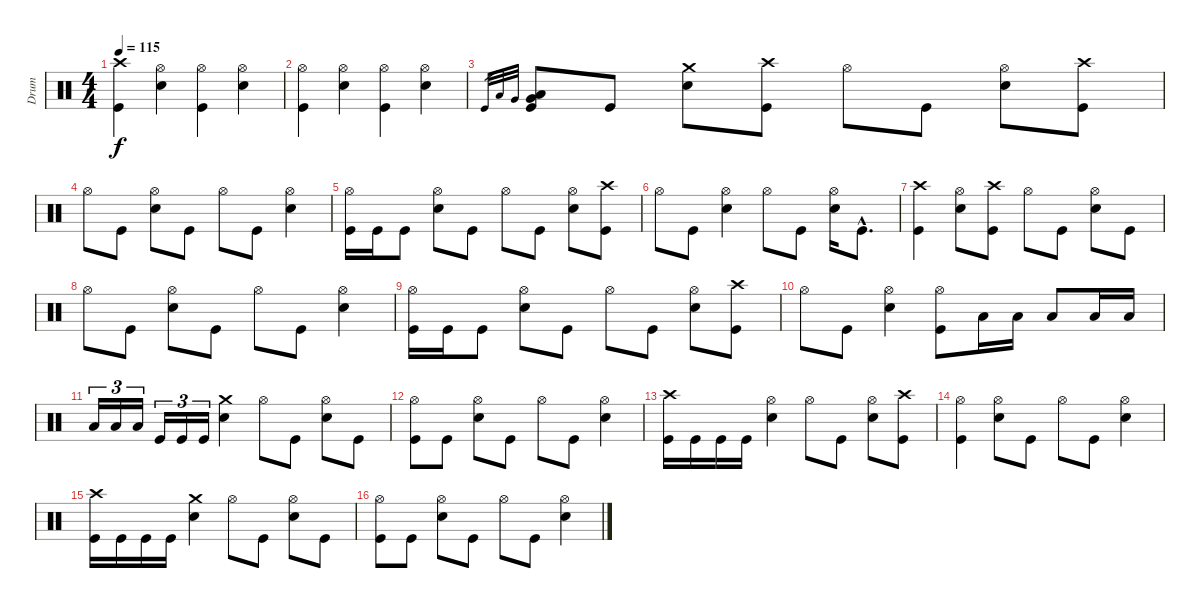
\track ("Drum" "Drum") {instrument percussion}
\staff {score}
\articulation defaults
\ts (4 4)
\tempo 115
\clef neutral
\ks c
("Kick (hit)" "Crash high (hit)").4{dy f} ("Hi-Hat (open)" "Snare (hit) 2").4 ("Kick (hit)" "Hi-Hat (open)").4 ("Hi-Hat (open)" "Snare (hit) 2").4 |
("Kick (hit)" "Hi-Hat (open)").4 ("Hi-Hat (open)" "Snare (hit) 2").4 ("Kick (hit)" "Hi-Hat (open)").4 ("Hi-Hat (open)" "Snare (hit) 2").4 |
"Kick (hit)".32{gr} "Low Floor Tom (hit)".32{gr} "Very Low Tom (hit)".32{gr} ("Kick (hit)" "Low Floor Tom (hit)" "Very Low Tom (hit)").8 "Kick (hit)".8 ("Snare (hit) 2" "Crash medium (hit)").8 ("Kick (hit)" "Crash high (hit)").8 "Hi-Hat (open)".8 "Kick (hit)".8 ("Hi-Hat (open)" "Snare (hit) 2").8 ("Kick (hit)" "Crash high (hit)").8 |
"Hi-Hat (open)".8 "Kick (hit)".8 ("Hi-Hat (open)" "Snare (hit) 2").8 "Kick (hit)".8 "Hi-Hat (open)".8 "Kick (hit)".8 ("Hi-Hat (open)" "Snare (hit) 2").4 |
("Kick (hit)" "Hi-Hat (open)").16 "Kick (hit)".16 "Kick (hit)".8 ("Hi-Hat (open)" "Snare (hit) 2").8 "Kick (hit)".8 "Hi-Hat (open)".8 "Kick (hit)".8 ("Hi-Hat (open)" "Snare (hit) 2").8 ("Kick (hit)" "Crash high (hit)").8 |
"Hi-Hat (open)".8 "Kick (hit)".8 ("Hi-Hat (open)" "Snare (hit) 2").4 "Hi-Hat (open)".8 "Kick (hit)".8 ("Hi-Hat (open)" "Snare (hit) 2").16 "Kick (hit)"{hac}.8{d} |
("Kick (hit)" "Crash high (hit)").4 ("Hi-Hat (open)" "Snare (hit) 2").8 ("Kick (hit)" "Crash high (hit)").8 "Hi-Hat (open)".8 "Kick (hit)".8 ("Hi-Hat (open)" "Snare (hit) 2").8 "Kick (hit)".8 |
"Hi-Hat (open)".8 "Kick (hit)".8 ("Hi-Hat (open)" "Snare (hit) 2").8 "Kick (hit)".8 "Hi-Hat (open)".8 "Kick (hit)".8 ("Hi-Hat (open)" "Snare (hit) 2").4 |
("Kick (hit)" "Hi-Hat (open)").16 "Kick (hit)".16 "Kick (hit)".8 ("Hi-Hat (open)" "Snare (hit) 2").8 "Kick (hit)".8 "Hi-Hat (open)".8 "Kick (hit)".8 ("Hi-Hat (open)" "Snare (hit) 2").8 ("Kick (hit)" "Crash high (hit)").8 |
"Hi-Hat (open)".8 "Kick (hit)".8 ("Hi-Hat (open)" "Snare (hit) 2").4 ("Kick (hit)" "Hi-Hat (open)").8 "Low Floor Tom (hit)".16 "Low Floor Tom (hit)".16 "Low Floor Tom (hit)".8 "Low Floor Tom (hit)".16 "Low Floor Tom (hit)".16 |
"Low Floor Tom (hit)".16{tu (3 2)} "Low Floor Tom (hit)".16{tu (3 2)} "Low Floor Tom (hit)".16{tu (3 2)} "Kick (hit)".16{tu (3 2)} "Kick (hit)".16{tu (3 2)} "Kick (hit)".16{tu (3 2)} ("Crash medium (hit)" "Snare (hit) 2").4 "Hi-Hat (open)".8 "Kick (hit)".8 ("Hi-Hat (open)" "Snare (hit) 2").8 "Kick (hit)".8 |
("Kick (hit)" "Hi-Hat (open)").8 "Kick (hit)".8 ("Hi-Hat (open)" "Snare (hit) 2").8 "Kick (hit)".8 "Hi-Hat (open)".8 "Kick (hit)".8 ("Hi-Hat (open)" "Snare (hit) 2").4 |
("Kick (hit)" "Crash high (hit)").16 "Kick (hit)".16 "Kick (hit)".16 "Kick (hit)".16 ("Hi-Hat (open)" "Snare (hit) 2").4 "Hi-Hat (open)".8 "Kick (hit)".8 ("Hi-Hat (open)" "Snare (hit) 2").8 ("Kick (hit)" "Crash high (hit)").8 |
("Kick (hit)" "Hi-Hat (open)").4 ("Hi-Hat (open)" "Snare (hit) 2").8 "Kick (hit)".8 "Hi-Hat (open)".8 "Kick (hit)".8 ("Hi-Hat (open)" "Snare (hit) 2").4 |
("Kick (hit)" "Crash high (hit)").16 "Kick (hit)".16 "Kick (hit)".16 "Kick (hit)".16 ("Crash medium (hit)" "Snare (hit) 2").4 "Hi-Hat (open)".8 "Kick (hit)".8 ("Hi-Hat (open)" "Snare (hit) 2").8 "Kick (hit)".8 |
("Kick (hit)" "Hi-Hat (open)").8 "Kick (hit)".8 ("Hi-Hat (open)" "Snare (hit) 2").8 "Kick (hit)".8 "Hi-Hat (open)".8 "Kick (hit)".8 ("Hi-Hat (open)" "Snare (hit) 2").4
